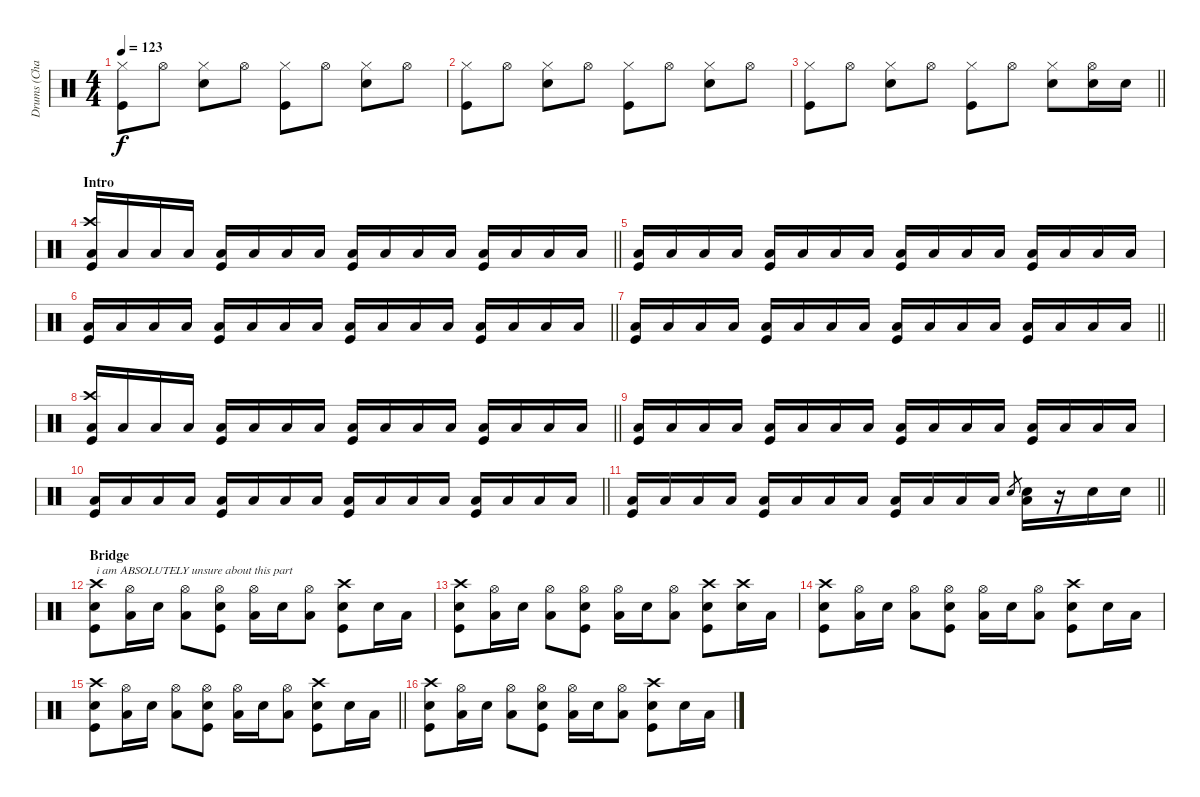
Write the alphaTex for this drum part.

\track ("Drums (Chad Smith)" "Drums (Cha") {instrument percussion}
\staff {score}
\articulation defaults
\ts (4 4)
\tempo 123
\clef neutral
\ks c
("Hi-Hat (closed)" "Kick (hit)").8{dy f} "Hi-Hat (open)".8 ("Hi-Hat (closed)" "Snare (hit) 2").8 "Hi-Hat (open)".8 ("Hi-Hat (closed)" "Kick (hit)").8 "Hi-Hat (open)".8 ("Hi-Hat (closed)" "Snare (hit) 2").8 "Hi-Hat (open)".8 |
("Hi-Hat (closed)" "Kick (hit)").8 "Hi-Hat (open)".8 ("Hi-Hat (closed)" "Snare (hit) 2").8 "Hi-Hat (open)".8 ("Hi-Hat (closed)" "Kick (hit)").8 "Hi-Hat (open)".8 ("Hi-Hat (closed)" "Snare (hit) 2").8 "Hi-Hat (open)".8 |
\barLineRight lightlight
("Hi-Hat (closed)" "Kick (hit)").8 "Hi-Hat (open)".8 ("Hi-Hat (closed)" "Snare (hit) 2").8 "Hi-Hat (open)".8 ("Hi-Hat (closed)" "Kick (hit)").8 "Hi-Hat (open)".8 ("Hi-Hat (closed)" "Snare (hit) 2").8 ("Hi-Hat (open)" "Snare (hit) 2").16 "Snare (hit) 2".16 |
\section ("" "Intro")
\barLineRight lightlight
("Crash high (hit)" "Kick (hit)" "Low Floor Tom (hit)").16 "Low Floor Tom (hit)".16 "Low Floor Tom (hit)".16 "Low Floor Tom (hit)".16 ("Kick (hit)" "Low Floor Tom (hit)").16 "Low Floor Tom (hit)".16 "Low Floor Tom (hit)".16 "Low Floor Tom (hit)".16 ("Kick (hit)" "Low Floor Tom (hit)").16 "Low Floor Tom (hit)".16 "Low Floor Tom (hit)".16 "Low Floor Tom (hit)".16 ("Kick (hit)" "Low Floor Tom (hit)").16 "Low Floor Tom (hit)".16 "Low Floor Tom (hit)".16 "Low Floor Tom (hit)".16 |
("Kick (hit)" "Low Floor Tom (hit)").16 "Low Floor Tom (hit)".16 "Low Floor Tom (hit)".16 "Low Floor Tom (hit)".16 ("Kick (hit)" "Low Floor Tom (hit)").16 "Low Floor Tom (hit)".16 "Low Floor Tom (hit)".16 "Low Floor Tom (hit)".16 ("Kick (hit)" "Low Floor Tom (hit)").16 "Low Floor Tom (hit)".16 "Low Floor Tom (hit)".16 "Low Floor Tom (hit)".16 ("Kick (hit)" "Low Floor Tom (hit)").16 "Low Floor Tom (hit)".16 "Low Floor Tom (hit)".16 "Low Floor Tom (hit)".16 |
\barLineRight lightlight
("Kick (hit)" "Low Floor Tom (hit)").16 "Low Floor Tom (hit)".16 "Low Floor Tom (hit)".16 "Low Floor Tom (hit)".16 ("Kick (hit)" "Low Floor Tom (hit)").16 "Low Floor Tom (hit)".16 "Low Floor Tom (hit)".16 "Low Floor Tom (hit)".16 ("Kick (hit)" "Low Floor Tom (hit)").16 "Low Floor Tom (hit)".16 "Low Floor Tom (hit)".16 "Low Floor Tom (hit)".16 ("Kick (hit)" "Low Floor Tom (hit)").16 "Low Floor Tom (hit)".16 "Low Floor Tom (hit)".16 "Low Floor Tom (hit)".16 |
\barLineRight lightlight
("Kick (hit)" "Low Floor Tom (hit)").16 "Low Floor Tom (hit)".16 "Low Floor Tom (hit)".16 "Low Floor Tom (hit)".16 ("Kick (hit)" "Low Floor Tom (hit)").16 "Low Floor Tom (hit)".16 "Low Floor Tom (hit)".16 "Low Floor Tom (hit)".16 ("Kick (hit)" "Low Floor Tom (hit)").16 "Low Floor Tom (hit)".16 "Low Floor Tom (hit)".16 "Low Floor Tom (hit)".16 ("Kick (hit)" "Low Floor Tom (hit)").16 "Low Floor Tom (hit)".16 "Low Floor Tom (hit)".16 "Low Floor Tom (hit)".16 |
\barLineRight lightlight
("Crash high (hit)" "Kick (hit)" "Low Floor Tom (hit)").16 "Low Floor Tom (hit)".16 "Low Floor Tom (hit)".16 "Low Floor Tom (hit)".16 ("Kick (hit)" "Low Floor Tom (hit)").16 "Low Floor Tom (hit)".16 "Low Floor Tom (hit)".16 "Low Floor Tom (hit)".16 ("Kick (hit)" "Low Floor Tom (hit)").16 "Low Floor Tom (hit)".16 "Low Floor Tom (hit)".16 "Low Floor Tom (hit)".16 ("Kick (hit)" "Low Floor Tom (hit)").16 "Low Floor Tom (hit)".16 "Low Floor Tom (hit)".16 "Low Floor Tom (hit)".16 |
("Kick (hit)" "Low Floor Tom (hit)").16 "Low Floor Tom (hit)".16 "Low Floor Tom (hit)".16 "Low Floor Tom (hit)".16 ("Kick (hit)" "Low Floor Tom (hit)").16 "Low Floor Tom (hit)".16 "Low Floor Tom (hit)".16 "Low Floor Tom (hit)".16 ("Kick (hit)" "Low Floor Tom (hit)").16 "Low Floor Tom (hit)".16 "Low Floor Tom (hit)".16 "Low Floor Tom (hit)".16 ("Kick (hit)" "Low Floor Tom (hit)").16 "Low Floor Tom (hit)".16 "Low Floor Tom (hit)".16 "Low Floor Tom (hit)".16 |
\barLineRight lightlight
("Kick (hit)" "Low Floor Tom (hit)").16 "Low Floor Tom (hit)".16 "Low Floor Tom (hit)".16 "Low Floor Tom (hit)".16 ("Kick (hit)" "Low Floor Tom (hit)").16 "Low Floor Tom (hit)".16 "Low Floor Tom (hit)".16 "Low Floor Tom (hit)".16 ("Kick (hit)" "Low Floor Tom (hit)").16 "Low Floor Tom (hit)".16 "Low Floor Tom (hit)".16 "Low Floor Tom (hit)".16 ("Kick (hit)" "Low Floor Tom (hit)").16 "Low Floor Tom (hit)".16 "Low Floor Tom (hit)".16 "Low Floor Tom (hit)".16 |
\barLineRight lightlight
("Kick (hit)" "Low Floor Tom (hit)").16 "Low Floor Tom (hit)".16 "Low Floor Tom (hit)".16 "Low Floor Tom (hit)".16 ("Kick (hit)" "Low Floor Tom (hit)").16 "Low Floor Tom (hit)".16 "Low Floor Tom (hit)".16 "Low Floor Tom (hit)".16 ("Kick (hit)" "Low Floor Tom (hit)").16 "Low Floor Tom (hit)".16 "Low Floor Tom (hit)".16 "Low Floor Tom (hit)".16 "Snare (hit) 2".8{gr} ("Snare (hit) 2" "Low Floor Tom (hit)").16 r.16 "Snare (hit) 2".16 "Snare (hit) 2".16 |
\section ("" "Bridge")
("Crash high (hit)" "Snare (hit) 2" "Kick (hit)").8{txt "i am ABSOLUTELY unsure about this part"} ("Hi-Hat (open)" "Low Floor Tom (hit)").16 "Snare (hit) 2".16 ("Hi-Hat (open)" "Low Floor Tom (hit)").8 ("Hi-Hat (open)" "Snare (hit) 2" "Kick (hit)").8 ("Hi-Hat (open)" "Low Floor Tom (hit)").16 "Snare (hit) 2".16 ("Hi-Hat (open)" "Low Floor Tom (hit)").8 ("Crash high (hit)" "Snare (hit) 2" "Kick (hit)").8 "Snare (hit) 2".16 "Low Floor Tom (hit)".16 |
("Crash high (hit)" "Snare (hit) 2" "Kick (hit)").8 ("Hi-Hat (open)" "Low Floor Tom (hit)").16 "Snare (hit) 2".16 ("Hi-Hat (open)" "Low Floor Tom (hit)").8 ("Hi-Hat (open)" "Snare (hit) 2" "Kick (hit)").8 ("Hi-Hat (open)" "Low Floor Tom (hit)").16 "Snare (hit) 2".16 ("Hi-Hat (open)" "Low Floor Tom (hit)").8 ("Crash high (hit)" "Snare (hit) 2" "Kick (hit)").8 ("Crash high (hit)" "Snare (hit) 2").16 "Low Floor Tom (hit)".16 |
("Crash high (hit)" "Snare (hit) 2" "Kick (hit)").8 ("Hi-Hat (open)" "Low Floor Tom (hit)").16 "Snare (hit) 2".16 ("Hi-Hat (open)" "Low Floor Tom (hit)").8 ("Hi-Hat (open)" "Snare (hit) 2" "Kick (hit)").8 ("Hi-Hat (open)" "Low Floor Tom (hit)").16 "Snare (hit) 2".16 ("Hi-Hat (open)" "Low Floor Tom (hit)").8 ("Crash high (hit)" "Snare (hit) 2" "Kick (hit)").8 "Snare (hit) 2".16 "Low Floor Tom (hit)".16 |
\barLineRight lightlight
("Crash high (hit)" "Snare (hit) 2" "Kick (hit)").8 ("Hi-Hat (open)" "Low Floor Tom (hit)").16 "Snare (hit) 2".16 ("Hi-Hat (open)" "Low Floor Tom (hit)").8 ("Hi-Hat (open)" "Snare (hit) 2" "Kick (hit)").8 ("Hi-Hat (open)" "Low Floor Tom (hit)").16 "Snare (hit) 2".16 ("Hi-Hat (open)" "Low Floor Tom (hit)").8 ("Crash high (hit)" "Snare (hit) 2" "Kick (hit)").8 "Snare (hit) 2".16 "Low Floor Tom (hit)".16 |
("Crash high (hit)" "Snare (hit) 2" "Kick (hit)").8 ("Hi-Hat (open)" "Low Floor Tom (hit)").16 "Snare (hit) 2".16 ("Hi-Hat (open)" "Low Floor Tom (hit)").8 ("Hi-Hat (open)" "Snare (hit) 2" "Kick (hit)").8 ("Hi-Hat (open)" "Low Floor Tom (hit)").16 "Snare (hit) 2".16 ("Hi-Hat (open)" "Low Floor Tom (hit)").8 ("Crash high (hit)" "Snare (hit) 2" "Kick (hit)").8 "Snare (hit) 2".16 "Low Floor Tom (hit)".16
